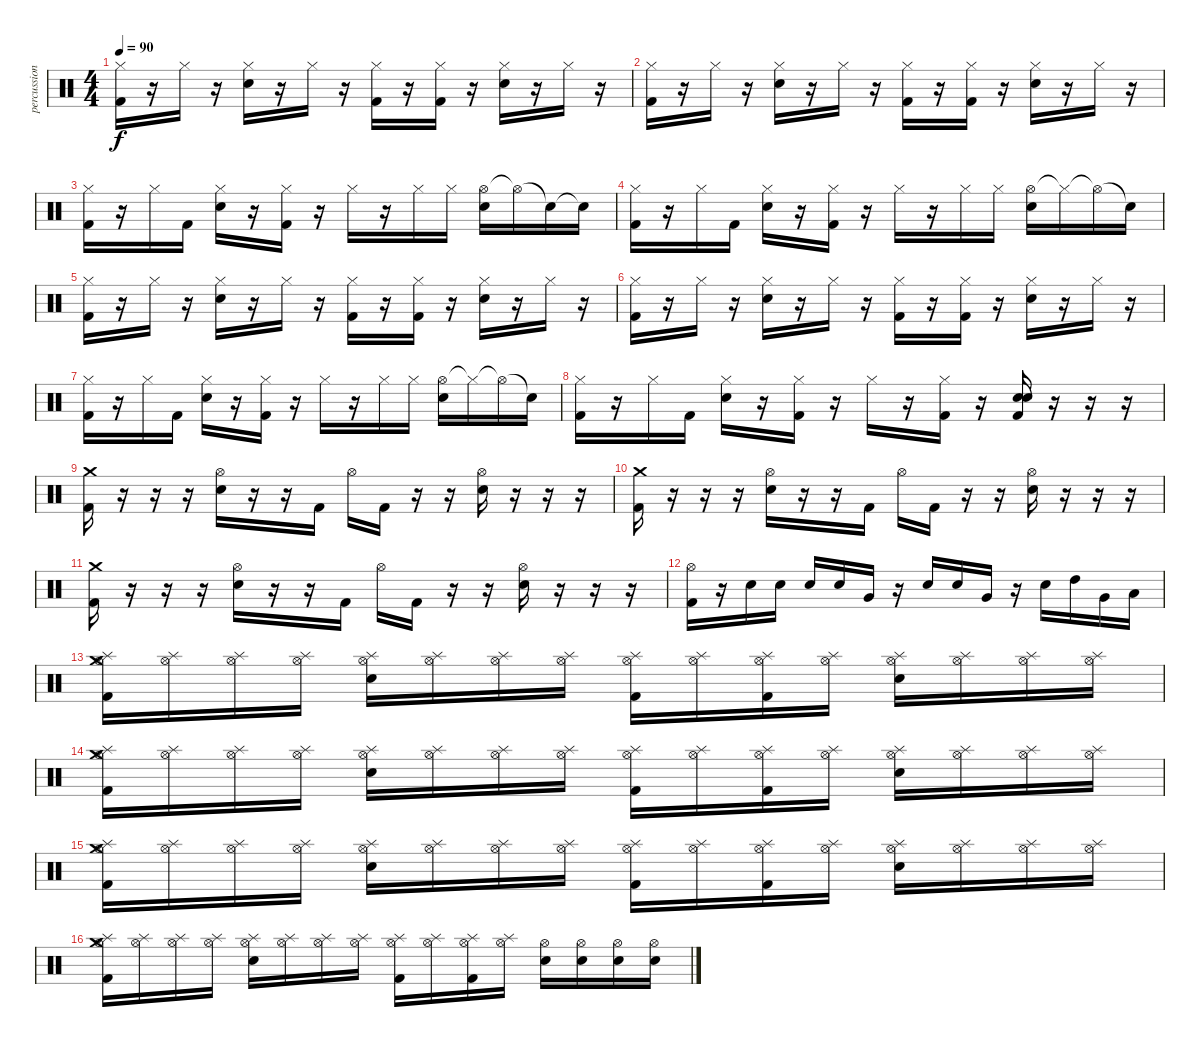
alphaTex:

\track ("percussion - longineu" "percussion") {instrument percussion}
\staff {score}
\articulation defaults
\ts (4 4)
\tempo 90
\clef neutral
\ks c
("Hi-Hat (closed)" "Kick (hit) 2").16{dy f} r.16 "Hi-Hat (closed)".16 r.16 ("Hi-Hat (closed)" "Snare (hit) 2").16 r.16 "Hi-Hat (closed)".16 r.16 ("Hi-Hat (closed)" "Kick (hit) 2").16 r.16 ("Hi-Hat (closed)" "Kick (hit) 2").16 r.16 ("Hi-Hat (closed)" "Snare (hit) 2").16 r.16 "Hi-Hat (closed)".16 r.16 |
("Hi-Hat (closed)" "Kick (hit) 2").16 r.16 "Hi-Hat (closed)".16 r.16 ("Hi-Hat (closed)" "Snare (hit) 2").16 r.16 "Hi-Hat (closed)".16 r.16 ("Hi-Hat (closed)" "Kick (hit) 2").16 r.16 ("Hi-Hat (closed)" "Kick (hit) 2").16 r.16 ("Hi-Hat (closed)" "Snare (hit) 2").16 r.16 "Hi-Hat (closed)".16 r.16 |
("Hi-Hat (closed)" "Kick (hit) 2").16 r.16 "Hi-Hat (closed)".16 "Kick (hit) 2".16 ("Hi-Hat (closed)" "Snare (hit) 2").16 r.16 ("Hi-Hat (closed)" "Kick (hit) 2").16 r.16 "Hi-Hat (closed)".16 r.16 "Hi-Hat (closed)".16 "Hi-Hat (closed)".16 ("Hi-Hat (open)" "Snare (hit) 2").16 "Hi-Hat (open)"{t}.16 "Snare (hit)"{t}.16 "Snare (hit)"{t}.16 |
("Hi-Hat (closed)" "Kick (hit) 2").16 r.16 "Hi-Hat (closed)".16 "Kick (hit) 2".16 ("Hi-Hat (closed)" "Snare (hit) 2").16 r.16 ("Hi-Hat (closed)" "Kick (hit) 2").16 r.16 "Hi-Hat (closed)".16 r.16 "Hi-Hat (closed)".16 "Hi-Hat (closed)".16 ("Hi-Hat (open)" "Snare (hit) 2").16 "Hi-Hat (closed)"{t}.16 "Hi-Hat (open)"{t}.16 "Snare (hit)"{t}.16 |
("Hi-Hat (closed)" "Kick (hit) 2").16 r.16 "Hi-Hat (closed)".16 r.16 ("Hi-Hat (closed)" "Snare (hit) 2").16 r.16 "Hi-Hat (closed)".16 r.16 ("Hi-Hat (closed)" "Kick (hit) 2").16 r.16 ("Hi-Hat (closed)" "Kick (hit) 2").16 r.16 ("Hi-Hat (closed)" "Snare (hit) 2").16 r.16 "Hi-Hat (closed)".16 r.16 |
("Hi-Hat (closed)" "Kick (hit) 2").16 r.16 "Hi-Hat (closed)".16 r.16 ("Hi-Hat (closed)" "Snare (hit) 2").16 r.16 "Hi-Hat (closed)".16 r.16 ("Hi-Hat (closed)" "Kick (hit) 2").16 r.16 ("Hi-Hat (closed)" "Kick (hit) 2").16 r.16 ("Hi-Hat (closed)" "Snare (hit) 2").16 r.16 "Hi-Hat (closed)".16 r.16 |
("Hi-Hat (closed)" "Kick (hit) 2").16 r.16 "Hi-Hat (closed)".16 "Kick (hit) 2".16 ("Hi-Hat (closed)" "Snare (hit) 2").16 r.16 ("Hi-Hat (closed)" "Kick (hit) 2").16 r.16 "Hi-Hat (closed)".16 r.16 "Hi-Hat (closed)".16 "Hi-Hat (closed)".16 ("Hi-Hat (open)" "Snare (hit) 2").16 "Hi-Hat (closed)"{t}.16 "Hi-Hat (open)"{t}.16 "Snare (hit)"{t}.16 |
("Hi-Hat (closed)" "Kick (hit) 2").16 r.16 "Hi-Hat (closed)".16 "Kick (hit) 2".16 ("Hi-Hat (closed)" "Snare (hit) 2").16 r.16 ("Hi-Hat (closed)" "Kick (hit) 2").16 r.16 "Hi-Hat (closed)".16 r.16 ("Hi-Hat (closed)" "Kick (hit) 2").16 r.16 ("Snare (hit) 2" "Snare (hit) 2" "Kick (hit) 2").16 r.16 r.16 r.16 |
("Crash medium (hit)" "Kick (hit) 2").16 r.16 r.16 r.16 ("Hi-Hat (open)" "Snare (hit) 2").16 r.16 r.16 "Kick (hit) 2".16 "Hi-Hat (open)".16 "Kick (hit) 2".16 r.16 r.16 ("Hi-Hat (open)" "Snare (hit) 2").16 r.16 r.16 r.16 |
("Crash medium (hit)" "Kick (hit) 2").16 r.16 r.16 r.16 ("Hi-Hat (open)" "Snare (hit) 2").16 r.16 r.16 "Kick (hit) 2".16 "Hi-Hat (open)".16 "Kick (hit) 2".16 r.16 r.16 ("Hi-Hat (open)" "Snare (hit) 2").16 r.16 r.16 r.16 |
("Crash medium (hit)" "Kick (hit) 2").16 r.16 r.16 r.16 ("Hi-Hat (open)" "Snare (hit) 2").16 r.16 r.16 "Kick (hit) 2".16 "Hi-Hat (open)".16 "Kick (hit) 2".16 r.16 r.16 ("Hi-Hat (open)" "Snare (hit) 2").16 r.16 r.16 r.16 |
("Hi-Hat (open)" "Kick (hit) 2").16 r.16 "Electric Snare (hit)".16 "Electric Snare (hit)".16 "Electric Snare (hit)".16 "Electric Snare (hit)".16 "Very Low Tom (hit)".16 r.16 "Electric Snare (hit)".16 "Electric Snare (hit)".16 "Very Low Tom (hit)".16 r.16 "Electric Snare (hit)".16 "High Tom (hit)".16 "Very Low Tom (hit)".16 "Low Floor Tom (hit)".16 |
("Splash (hit)" "Hi-Hat (open)" "Crash medium (hit)" "Kick (hit) 2").16 ("Splash (hit)" "Hi-Hat (open)").16 ("Splash (hit)" "Hi-Hat (open)").16 ("Splash (hit)" "Hi-Hat (open)").16 ("Splash (hit)" "Hi-Hat (open)" "Electric Snare (hit)").16 ("Splash (hit)" "Hi-Hat (open)").16 ("Splash (hit)" "Hi-Hat (open)").16 ("Splash (hit)" "Hi-Hat (open)").16 ("Splash (hit)" "Hi-Hat (open)" "Kick (hit) 2").16 ("Splash (hit)" "Hi-Hat (open)").16 ("Splash (hit)" "Hi-Hat (open)" "Kick (hit) 2").16 ("Splash (hit)" "Hi-Hat (open)").16 ("Splash (hit)" "Hi-Hat (open)" "Electric Snare (hit)").16 ("Splash (hit)" "Hi-Hat (open)").16 ("Splash (hit)" "Hi-Hat (open)").16 ("Splash (hit)" "Hi-Hat (open)").16 |
("Splash (hit)" "Hi-Hat (open)" "Crash medium (hit)" "Kick (hit) 2").16 ("Splash (hit)" "Hi-Hat (open)").16 ("Splash (hit)" "Hi-Hat (open)").16 ("Splash (hit)" "Hi-Hat (open)").16 ("Splash (hit)" "Hi-Hat (open)" "Electric Snare (hit)").16 ("Splash (hit)" "Hi-Hat (open)").16 ("Splash (hit)" "Hi-Hat (open)").16 ("Splash (hit)" "Hi-Hat (open)").16 ("Splash (hit)" "Hi-Hat (open)" "Kick (hit) 2").16 ("Splash (hit)" "Hi-Hat (open)").16 ("Splash (hit)" "Hi-Hat (open)" "Kick (hit) 2").16 ("Splash (hit)" "Hi-Hat (open)").16 ("Splash (hit)" "Hi-Hat (open)" "Electric Snare (hit)").16 ("Splash (hit)" "Hi-Hat (open)").16 ("Splash (hit)" "Hi-Hat (open)").16 ("Splash (hit)" "Hi-Hat (open)").16 |
("Splash (hit)" "Hi-Hat (open)" "Crash medium (hit)" "Kick (hit) 2").16 ("Splash (hit)" "Hi-Hat (open)").16 ("Splash (hit)" "Hi-Hat (open)").16 ("Splash (hit)" "Hi-Hat (open)").16 ("Splash (hit)" "Hi-Hat (open)" "Electric Snare (hit)").16 ("Splash (hit)" "Hi-Hat (open)").16 ("Splash (hit)" "Hi-Hat (open)").16 ("Splash (hit)" "Hi-Hat (open)").16 ("Splash (hit)" "Hi-Hat (open)" "Kick (hit) 2").16 ("Splash (hit)" "Hi-Hat (open)").16 ("Splash (hit)" "Hi-Hat (open)" "Kick (hit) 2").16 ("Splash (hit)" "Hi-Hat (open)").16 ("Splash (hit)" "Hi-Hat (open)" "Electric Snare (hit)").16 ("Splash (hit)" "Hi-Hat (open)").16 ("Splash (hit)" "Hi-Hat (open)").16 ("Splash (hit)" "Hi-Hat (open)").16 |
("Splash (hit)" "Hi-Hat (open)" "Crash medium (hit)" "Kick (hit) 2").16 ("Splash (hit)" "Hi-Hat (open)").16 ("Splash (hit)" "Hi-Hat (open)").16 ("Splash (hit)" "Hi-Hat (open)").16 ("Splash (hit)" "Hi-Hat (open)" "Electric Snare (hit)").16 ("Splash (hit)" "Hi-Hat (open)").16 ("Splash (hit)" "Hi-Hat (open)").16 ("Splash (hit)" "Hi-Hat (open)").16 ("Splash (hit)" "Hi-Hat (open)" "Kick (hit) 2").16 ("Splash (hit)" "Hi-Hat (open)").16 ("Splash (hit)" "Hi-Hat (open)" "Kick (hit) 2").16 ("Splash (hit)" "Hi-Hat (open)").16 ("Hi-Hat (open)" "Electric Snare (hit)").16 ("Hi-Hat (open)" "Electric Snare (hit)").16 ("Hi-Hat (open)" "Electric Snare (hit)").16 ("Hi-Hat (open)" "Electric Snare (hit)").16
